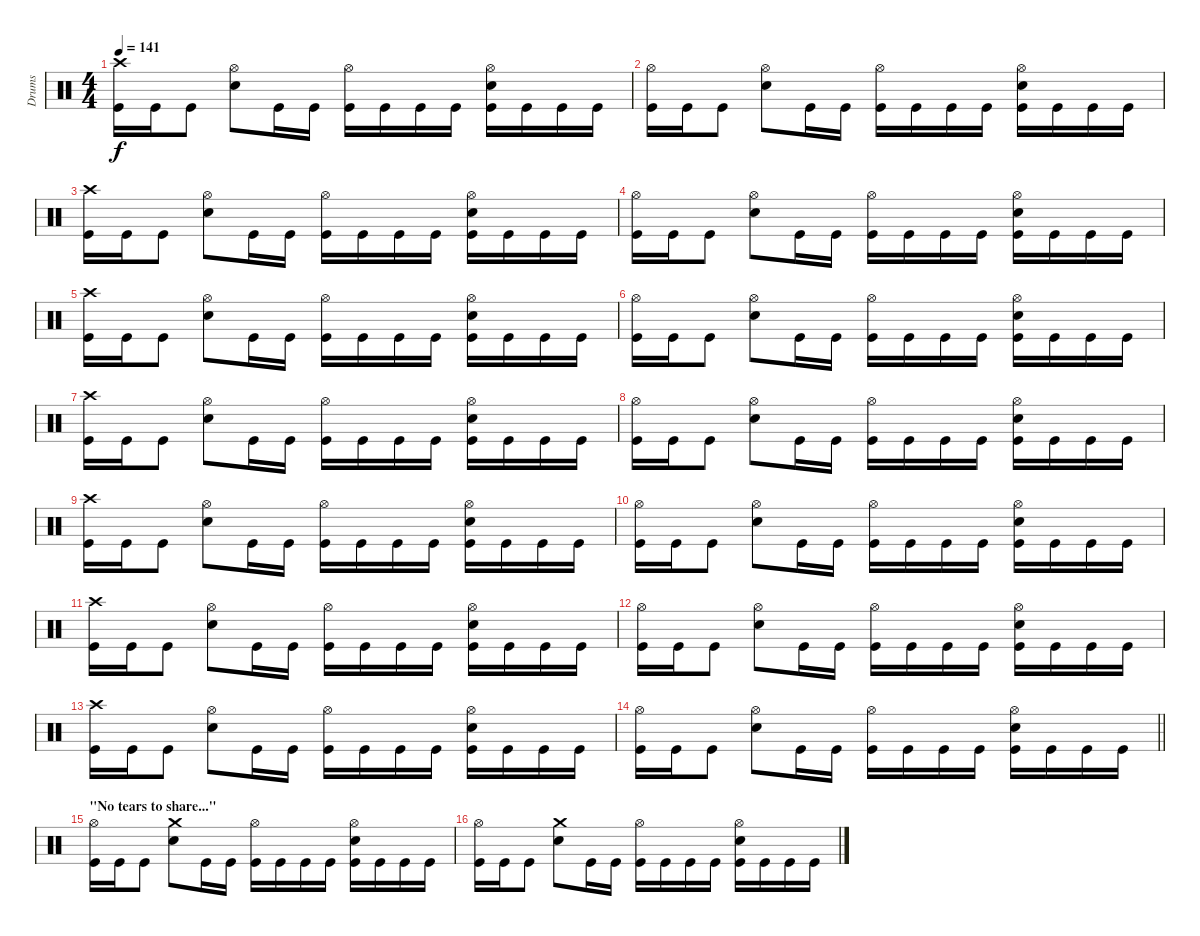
\track ("Drums" "Drums") {instrument percussion}
\staff {score}
\articulation defaults
\ts (4 4)
\tempo 141
\clef neutral
\ks c
("Kick (hit)" "Crash high (hit)").16{dy f} "Kick (hit)".16 "Kick (hit)".8 ("Snare (hit) 2" "Hi-Hat (open)").8 "Kick (hit)".16 "Kick (hit)".16 ("Kick (hit)" "Hi-Hat (open)").16 "Kick (hit)".16 "Kick (hit)".16 "Kick (hit)".16 ("Kick (hit)" "Snare (hit) 2" "Hi-Hat (open)").16 "Kick (hit)".16 "Kick (hit)".16 "Kick (hit)".16 |
("Kick (hit)" "Hi-Hat (open)").16 "Kick (hit)".16 "Kick (hit)".8 ("Snare (hit) 2" "Hi-Hat (open)").8 "Kick (hit)".16 "Kick (hit)".16 ("Kick (hit)" "Hi-Hat (open)").16 "Kick (hit)".16 "Kick (hit)".16 "Kick (hit)".16 ("Kick (hit)" "Snare (hit) 2" "Hi-Hat (open)").16 "Kick (hit)".16 "Kick (hit)".16 "Kick (hit)".16 |
("Kick (hit)" "Crash high (hit)").16 "Kick (hit)".16 "Kick (hit)".8 ("Snare (hit) 2" "Hi-Hat (open)").8 "Kick (hit)".16 "Kick (hit)".16 ("Kick (hit)" "Hi-Hat (open)").16 "Kick (hit)".16 "Kick (hit)".16 "Kick (hit)".16 ("Kick (hit)" "Snare (hit) 2" "Hi-Hat (open)").16 "Kick (hit)".16 "Kick (hit)".16 "Kick (hit)".16 |
("Kick (hit)" "Hi-Hat (open)").16 "Kick (hit)".16 "Kick (hit)".8 ("Snare (hit) 2" "Hi-Hat (open)").8 "Kick (hit)".16 "Kick (hit)".16 ("Kick (hit)" "Hi-Hat (open)").16 "Kick (hit)".16 "Kick (hit)".16 "Kick (hit)".16 ("Kick (hit)" "Snare (hit) 2" "Hi-Hat (open)").16 "Kick (hit)".16 "Kick (hit)".16 "Kick (hit)".16 |
("Kick (hit)" "Crash high (hit)").16 "Kick (hit)".16 "Kick (hit)".8 ("Snare (hit) 2" "Hi-Hat (open)").8 "Kick (hit)".16 "Kick (hit)".16 ("Kick (hit)" "Hi-Hat (open)").16 "Kick (hit)".16 "Kick (hit)".16 "Kick (hit)".16 ("Kick (hit)" "Snare (hit) 2" "Hi-Hat (open)").16 "Kick (hit)".16 "Kick (hit)".16 "Kick (hit)".16 |
("Kick (hit)" "Hi-Hat (open)").16 "Kick (hit)".16 "Kick (hit)".8 ("Snare (hit) 2" "Hi-Hat (open)").8 "Kick (hit)".16 "Kick (hit)".16 ("Kick (hit)" "Hi-Hat (open)").16 "Kick (hit)".16 "Kick (hit)".16 "Kick (hit)".16 ("Kick (hit)" "Snare (hit) 2" "Hi-Hat (open)").16 "Kick (hit)".16 "Kick (hit)".16 "Kick (hit)".16 |
("Kick (hit)" "Crash high (hit)").16 "Kick (hit)".16 "Kick (hit)".8 ("Snare (hit) 2" "Hi-Hat (open)").8 "Kick (hit)".16 "Kick (hit)".16 ("Kick (hit)" "Hi-Hat (open)").16 "Kick (hit)".16 "Kick (hit)".16 "Kick (hit)".16 ("Kick (hit)" "Snare (hit) 2" "Hi-Hat (open)").16 "Kick (hit)".16 "Kick (hit)".16 "Kick (hit)".16 |
("Kick (hit)" "Hi-Hat (open)").16 "Kick (hit)".16 "Kick (hit)".8 ("Snare (hit) 2" "Hi-Hat (open)").8 "Kick (hit)".16 "Kick (hit)".16 ("Kick (hit)" "Hi-Hat (open)").16 "Kick (hit)".16 "Kick (hit)".16 "Kick (hit)".16 ("Kick (hit)" "Snare (hit) 2" "Hi-Hat (open)").16 "Kick (hit)".16 "Kick (hit)".16 "Kick (hit)".16 |
("Kick (hit)" "Crash high (hit)").16 "Kick (hit)".16 "Kick (hit)".8 ("Snare (hit) 2" "Hi-Hat (open)").8 "Kick (hit)".16 "Kick (hit)".16 ("Kick (hit)" "Hi-Hat (open)").16 "Kick (hit)".16 "Kick (hit)".16 "Kick (hit)".16 ("Kick (hit)" "Snare (hit) 2" "Hi-Hat (open)").16 "Kick (hit)".16 "Kick (hit)".16 "Kick (hit)".16 |
("Kick (hit)" "Hi-Hat (open)").16 "Kick (hit)".16 "Kick (hit)".8 ("Snare (hit) 2" "Hi-Hat (open)").8 "Kick (hit)".16 "Kick (hit)".16 ("Kick (hit)" "Hi-Hat (open)").16 "Kick (hit)".16 "Kick (hit)".16 "Kick (hit)".16 ("Kick (hit)" "Snare (hit) 2" "Hi-Hat (open)").16 "Kick (hit)".16 "Kick (hit)".16 "Kick (hit)".16 |
("Kick (hit)" "Crash high (hit)").16 "Kick (hit)".16 "Kick (hit)".8 ("Snare (hit) 2" "Hi-Hat (open)").8 "Kick (hit)".16 "Kick (hit)".16 ("Kick (hit)" "Hi-Hat (open)").16 "Kick (hit)".16 "Kick (hit)".16 "Kick (hit)".16 ("Kick (hit)" "Snare (hit) 2" "Hi-Hat (open)").16 "Kick (hit)".16 "Kick (hit)".16 "Kick (hit)".16 |
("Kick (hit)" "Hi-Hat (open)").16 "Kick (hit)".16 "Kick (hit)".8 ("Snare (hit) 2" "Hi-Hat (open)").8 "Kick (hit)".16 "Kick (hit)".16 ("Kick (hit)" "Hi-Hat (open)").16 "Kick (hit)".16 "Kick (hit)".16 "Kick (hit)".16 ("Kick (hit)" "Snare (hit) 2" "Hi-Hat (open)").16 "Kick (hit)".16 "Kick (hit)".16 "Kick (hit)".16 |
("Kick (hit)" "Crash high (hit)").16 "Kick (hit)".16 "Kick (hit)".8 ("Snare (hit) 2" "Hi-Hat (open)").8 "Kick (hit)".16 "Kick (hit)".16 ("Kick (hit)" "Hi-Hat (open)").16 "Kick (hit)".16 "Kick (hit)".16 "Kick (hit)".16 ("Kick (hit)" "Snare (hit) 2" "Hi-Hat (open)").16 "Kick (hit)".16 "Kick (hit)".16 "Kick (hit)".16 |
\barLineRight lightlight
("Kick (hit)" "Hi-Hat (open)").16 "Kick (hit)".16 "Kick (hit)".8 ("Snare (hit) 2" "Hi-Hat (open)").8 "Kick (hit)".16 "Kick (hit)".16 ("Kick (hit)" "Hi-Hat (open)").16 "Kick (hit)".16 "Kick (hit)".16 "Kick (hit)".16 ("Kick (hit)" "Snare (hit) 2" "Hi-Hat (open)").16 "Kick (hit)".16 "Kick (hit)".16 "Kick (hit)".16 |
\section ("" "\"No tears to share...\"")
("Kick (hit)" "Hi-Hat (open)").16 "Kick (hit)".16 "Kick (hit)".8 ("Snare (hit) 2" "Crash medium (hit)").8 "Kick (hit)".16 "Kick (hit)".16 ("Kick (hit)" "Hi-Hat (open)").16 "Kick (hit)".16 "Kick (hit)".16 "Kick (hit)".16 ("Kick (hit)" "Snare (hit) 2" "Hi-Hat (open)").16 "Kick (hit)".16 "Kick (hit)".16 "Kick (hit)".16 |
("Kick (hit)" "Hi-Hat (open)").16 "Kick (hit)".16 "Kick (hit)".8 ("Snare (hit) 2" "Crash medium (hit)").8 "Kick (hit)".16 "Kick (hit)".16 ("Kick (hit)" "Hi-Hat (open)").16 "Kick (hit)".16 "Kick (hit)".16 "Kick (hit)".16 ("Kick (hit)" "Snare (hit) 2" "Hi-Hat (open)").16 "Kick (hit)".16 "Kick (hit)".16 "Kick (hit)".16
